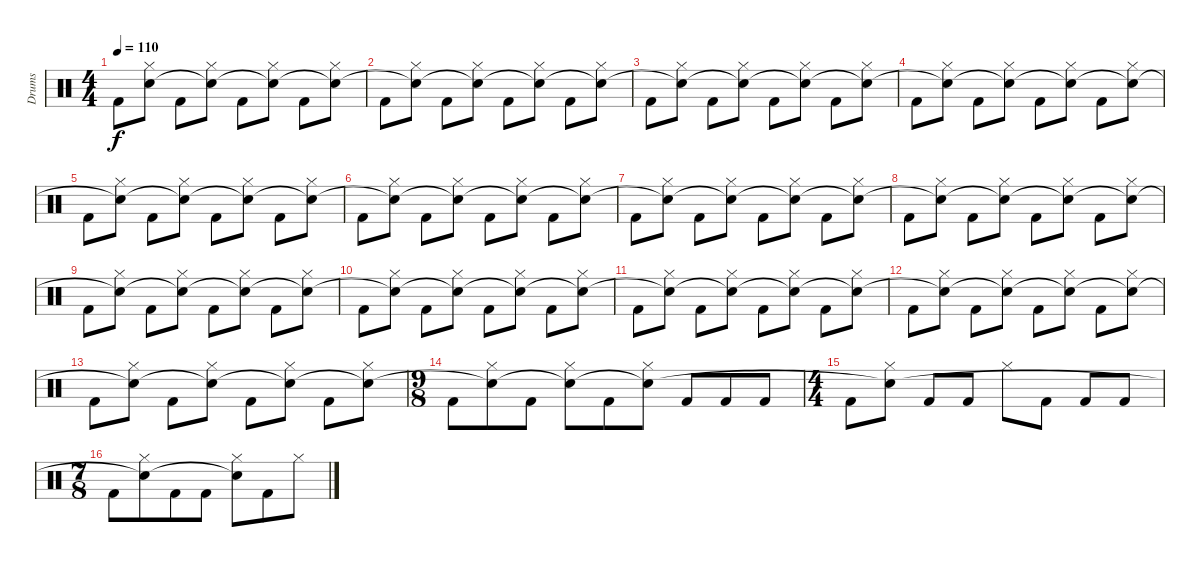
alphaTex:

\track ("Drums" "Drums") {instrument percussion}
\staff {score}
\articulation defaults
\ts (4 4)
\tempo 110
\clef neutral
\ks c "Kick (hit) 2".8{dy f}
("Hi-Hat (closed)" "Snare (hit)"{t}).8 "Kick (hit) 2".8 ("Hi-Hat (closed)" "Snare (hit)"{t}).8 "Kick (hit) 2".8 ("Hi-Hat (closed)" "Snare (hit)"{t}).8 "Kick (hit) 2".8 ("Hi-Hat (closed)" "Snare (hit)"{t}).8 |
"Kick (hit) 2".8 ("Hi-Hat (closed)" "Snare (hit)"{t}).8 "Kick (hit) 2".8 ("Hi-Hat (closed)" "Snare (hit)"{t}).8 "Kick (hit) 2".8 ("Hi-Hat (closed)" "Snare (hit)"{t}).8 "Kick (hit) 2".8 ("Hi-Hat (closed)" "Snare (hit)"{t}).8 |
"Kick (hit) 2".8 ("Hi-Hat (closed)" "Snare (hit)"{t}).8 "Kick (hit) 2".8 ("Hi-Hat (closed)" "Snare (hit)"{t}).8 "Kick (hit) 2".8 ("Hi-Hat (closed)" "Snare (hit)"{t}).8 "Kick (hit) 2".8 ("Hi-Hat (closed)" "Snare (hit)"{t}).8 |
"Kick (hit) 2".8 ("Hi-Hat (closed)" "Snare (hit)"{t}).8 "Kick (hit) 2".8 ("Hi-Hat (closed)" "Snare (hit)"{t}).8 "Kick (hit) 2".8 ("Hi-Hat (closed)" "Snare (hit)"{t}).8 "Kick (hit) 2".8 ("Hi-Hat (closed)" "Snare (hit)"{t}).8 |
"Kick (hit) 2".8 ("Hi-Hat (closed)" "Snare (hit)"{t}).8 "Kick (hit) 2".8 ("Hi-Hat (closed)" "Snare (hit)"{t}).8 "Kick (hit) 2".8 ("Hi-Hat (closed)" "Snare (hit)"{t}).8 "Kick (hit) 2".8 ("Hi-Hat (closed)" "Snare (hit)"{t}).8 |
"Kick (hit) 2".8 ("Hi-Hat (closed)" "Snare (hit)"{t}).8 "Kick (hit) 2".8 ("Hi-Hat (closed)" "Snare (hit)"{t}).8 "Kick (hit) 2".8 ("Hi-Hat (closed)" "Snare (hit)"{t}).8 "Kick (hit) 2".8 ("Hi-Hat (closed)" "Snare (hit)"{t}).8 |
"Kick (hit) 2".8 ("Hi-Hat (closed)" "Snare (hit)"{t}).8 "Kick (hit) 2".8 ("Hi-Hat (closed)" "Snare (hit)"{t}).8 "Kick (hit) 2".8 ("Hi-Hat (closed)" "Snare (hit)"{t}).8 "Kick (hit) 2".8 ("Hi-Hat (closed)" "Snare (hit)"{t}).8 |
"Kick (hit) 2".8 ("Hi-Hat (closed)" "Snare (hit)"{t}).8 "Kick (hit) 2".8 ("Hi-Hat (closed)" "Snare (hit)"{t}).8 "Kick (hit) 2".8 ("Hi-Hat (closed)" "Snare (hit)"{t}).8 "Kick (hit) 2".8 ("Hi-Hat (closed)" "Snare (hit)"{t}).8 |
"Kick (hit) 2".8 ("Hi-Hat (closed)" "Snare (hit)"{t}).8 "Kick (hit) 2".8 ("Hi-Hat (closed)" "Snare (hit)"{t}).8 "Kick (hit) 2".8 ("Hi-Hat (closed)" "Snare (hit)"{t}).8 "Kick (hit) 2".8 ("Hi-Hat (closed)" "Snare (hit)"{t}).8 |
"Kick (hit) 2".8 ("Hi-Hat (closed)" "Snare (hit)"{t}).8 "Kick (hit) 2".8 ("Hi-Hat (closed)" "Snare (hit)"{t}).8 "Kick (hit) 2".8 ("Hi-Hat (closed)" "Snare (hit)"{t}).8 "Kick (hit) 2".8 ("Hi-Hat (closed)" "Snare (hit)"{t}).8 |
"Kick (hit) 2".8 ("Hi-Hat (closed)" "Snare (hit)"{t}).8 "Kick (hit) 2".8 ("Hi-Hat (closed)" "Snare (hit)"{t}).8 "Kick (hit) 2".8 ("Hi-Hat (closed)" "Snare (hit)"{t}).8 "Kick (hit) 2".8 ("Hi-Hat (closed)" "Snare (hit)"{t}).8 |
"Kick (hit) 2".8 ("Hi-Hat (closed)" "Snare (hit)"{t}).8 "Kick (hit) 2".8 ("Hi-Hat (closed)" "Snare (hit)"{t}).8 "Kick (hit) 2".8 ("Hi-Hat (closed)" "Snare (hit)"{t}).8 "Kick (hit) 2".8 ("Hi-Hat (closed)" "Snare (hit)"{t}).8 |
"Kick (hit) 2".8 ("Hi-Hat (closed)" "Snare (hit)"{t}).8 "Kick (hit) 2".8 ("Hi-Hat (closed)" "Snare (hit)"{t}).8 "Kick (hit) 2".8 ("Hi-Hat (closed)" "Snare (hit)"{t}).8 "Kick (hit) 2".8 ("Hi-Hat (closed)" "Snare (hit)"{t}).8 |
\ts (9 8)
"Kick (hit) 2".8 ("Hi-Hat (closed)" "Snare (hit)"{t}).8 "Kick (hit) 2".8 ("Hi-Hat (closed)" "Snare (hit)"{t}).8 "Kick (hit) 2".8 ("Hi-Hat (closed)" "Snare (hit)"{t}).8 "Kick (hit) 2".8 "Kick (hit) 2".8 "Kick (hit) 2".8 |
\ts (4 4)
"Kick (hit) 2".8 ("Hi-Hat (closed)" "Snare (hit)"{t}).8 "Kick (hit) 2".8 "Kick (hit) 2".8 "Hi-Hat (closed)".8 "Kick (hit) 2".8 "Kick (hit) 2".8 "Kick (hit) 2".8 |
\ts (7 8)
"Kick (hit) 2".8 ("Hi-Hat (closed)" "Snare (hit)"{t}).8 "Kick (hit) 2".8 "Kick (hit) 2".8 ("Hi-Hat (closed)" "Snare (hit)"{t}).8 "Kick (hit) 2".8 "Hi-Hat (closed)".8
